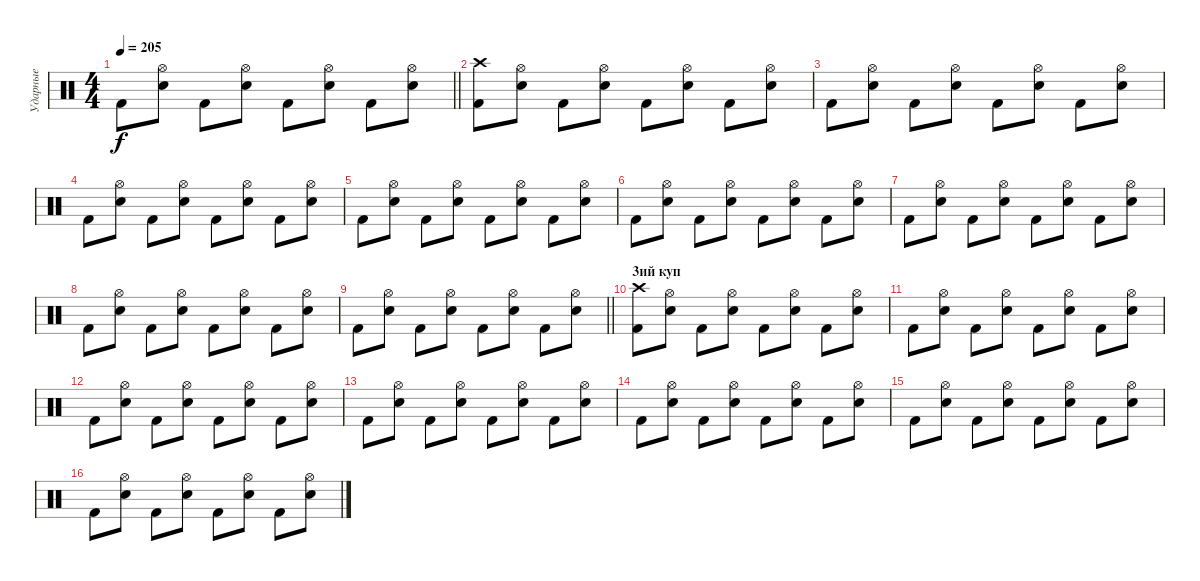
\track ("Ударные" "Ударные") {instrument percussion}
\staff {score}
\articulation defaults
\ts (4 4)
\tempo 205
\clef neutral
\barLineRight lightlight
\ks c "Kick (hit) 2".8{dy f}
("Hi-Hat (open)" "Electric Snare (hit)").8 "Kick (hit) 2".8 ("Hi-Hat (open)" "Electric Snare (hit)").8 "Kick (hit) 2".8 ("Hi-Hat (open)" "Electric Snare (hit)").8 "Kick (hit) 2".8 ("Hi-Hat (open)" "Electric Snare (hit)").8 |
("Crash high (hit)" "Kick (hit) 2").8 ("Hi-Hat (open)" "Electric Snare (hit)").8 "Kick (hit) 2".8 ("Hi-Hat (open)" "Electric Snare (hit)").8 "Kick (hit) 2".8 ("Hi-Hat (open)" "Electric Snare (hit)").8 "Kick (hit) 2".8 ("Hi-Hat (open)" "Electric Snare (hit)").8 |
"Kick (hit) 2".8 ("Hi-Hat (open)" "Electric Snare (hit)").8 "Kick (hit) 2".8 ("Hi-Hat (open)" "Electric Snare (hit)").8 "Kick (hit) 2".8 ("Hi-Hat (open)" "Electric Snare (hit)").8 "Kick (hit) 2".8 ("Hi-Hat (open)" "Electric Snare (hit)").8 |
"Kick (hit) 2".8 ("Hi-Hat (open)" "Electric Snare (hit)").8 "Kick (hit) 2".8 ("Hi-Hat (open)" "Electric Snare (hit)").8 "Kick (hit) 2".8 ("Hi-Hat (open)" "Electric Snare (hit)").8 "Kick (hit) 2".8 ("Hi-Hat (open)" "Electric Snare (hit)").8 |
"Kick (hit) 2".8 ("Hi-Hat (open)" "Electric Snare (hit)").8 "Kick (hit) 2".8 ("Hi-Hat (open)" "Electric Snare (hit)").8 "Kick (hit) 2".8 ("Hi-Hat (open)" "Electric Snare (hit)").8 "Kick (hit) 2".8 ("Hi-Hat (open)" "Electric Snare (hit)").8 |
"Kick (hit) 2".8 ("Hi-Hat (open)" "Electric Snare (hit)").8 "Kick (hit) 2".8 ("Hi-Hat (open)" "Electric Snare (hit)").8 "Kick (hit) 2".8 ("Hi-Hat (open)" "Electric Snare (hit)").8 "Kick (hit) 2".8 ("Hi-Hat (open)" "Electric Snare (hit)").8 |
"Kick (hit) 2".8 ("Hi-Hat (open)" "Electric Snare (hit)").8 "Kick (hit) 2".8 ("Hi-Hat (open)" "Electric Snare (hit)").8 "Kick (hit) 2".8 ("Hi-Hat (open)" "Electric Snare (hit)").8 "Kick (hit) 2".8 ("Hi-Hat (open)" "Electric Snare (hit)").8 |
"Kick (hit) 2".8 ("Hi-Hat (open)" "Electric Snare (hit)").8 "Kick (hit) 2".8 ("Hi-Hat (open)" "Electric Snare (hit)").8 "Kick (hit) 2".8 ("Hi-Hat (open)" "Electric Snare (hit)").8 "Kick (hit) 2".8 ("Hi-Hat (open)" "Electric Snare (hit)").8 |
\barLineRight lightlight "Kick (hit) 2".8
("Hi-Hat (open)" "Electric Snare (hit)").8 "Kick (hit) 2".8 ("Hi-Hat (open)" "Electric Snare (hit)").8 "Kick (hit) 2".8 ("Hi-Hat (open)" "Electric Snare (hit)").8 "Kick (hit) 2".8 ("Hi-Hat (open)" "Electric Snare (hit)").8 |
\section ("" "3ий куп")
("Crash high (hit)" "Kick (hit) 2").8 ("Hi-Hat (open)" "Electric Snare (hit)").8 "Kick (hit) 2".8 ("Hi-Hat (open)" "Electric Snare (hit)").8 "Kick (hit) 2".8 ("Hi-Hat (open)" "Electric Snare (hit)").8 "Kick (hit) 2".8 ("Hi-Hat (open)" "Electric Snare (hit)").8 |
"Kick (hit) 2".8 ("Hi-Hat (open)" "Electric Snare (hit)").8 "Kick (hit) 2".8 ("Hi-Hat (open)" "Electric Snare (hit)").8 "Kick (hit) 2".8 ("Hi-Hat (open)" "Electric Snare (hit)").8 "Kick (hit) 2".8 ("Hi-Hat (open)" "Electric Snare (hit)").8 |
"Kick (hit) 2".8 ("Hi-Hat (open)" "Electric Snare (hit)").8 "Kick (hit) 2".8 ("Hi-Hat (open)" "Electric Snare (hit)").8 "Kick (hit) 2".8 ("Hi-Hat (open)" "Electric Snare (hit)").8 "Kick (hit) 2".8 ("Hi-Hat (open)" "Electric Snare (hit)").8 |
"Kick (hit) 2".8 ("Hi-Hat (open)" "Electric Snare (hit)").8 "Kick (hit) 2".8 ("Hi-Hat (open)" "Electric Snare (hit)").8 "Kick (hit) 2".8 ("Hi-Hat (open)" "Electric Snare (hit)").8 "Kick (hit) 2".8 ("Hi-Hat (open)" "Electric Snare (hit)").8 |
"Kick (hit) 2".8 ("Hi-Hat (open)" "Electric Snare (hit)").8 "Kick (hit) 2".8 ("Hi-Hat (open)" "Electric Snare (hit)").8 "Kick (hit) 2".8 ("Hi-Hat (open)" "Electric Snare (hit)").8 "Kick (hit) 2".8 ("Hi-Hat (open)" "Electric Snare (hit)").8 |
"Kick (hit) 2".8 ("Hi-Hat (open)" "Electric Snare (hit)").8 "Kick (hit) 2".8 ("Hi-Hat (open)" "Electric Snare (hit)").8 "Kick (hit) 2".8 ("Hi-Hat (open)" "Electric Snare (hit)").8 "Kick (hit) 2".8 ("Hi-Hat (open)" "Electric Snare (hit)").8 |
"Kick (hit) 2".8 ("Hi-Hat (open)" "Electric Snare (hit)").8 "Kick (hit) 2".8 ("Hi-Hat (open)" "Electric Snare (hit)").8 "Kick (hit) 2".8 ("Hi-Hat (open)" "Electric Snare (hit)").8 "Kick (hit) 2".8 ("Hi-Hat (open)" "Electric Snare (hit)").8
